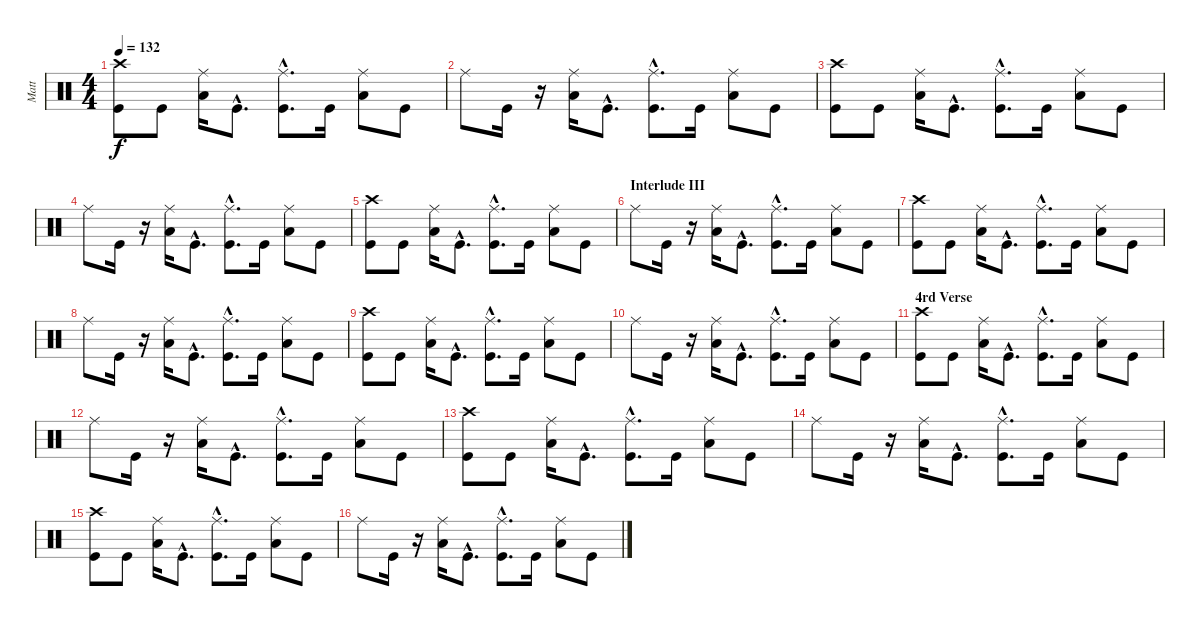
\track ("Matt" "Matt") {instrument percussion}
\staff {score}
\articulation defaults
\ts (4 4)
\tempo 132
\clef neutral
\ks c
("Crash high (hit)" "Kick (hit)").8{dy f} "Kick (hit)".8 ("Ride (middle)" "Low Tom (hit)").16 "Kick (hit)"{hac}.8{d} ("Kick (hit)"{hac} "Ride (middle)").8{d} "Kick (hit)".16 ("Ride (middle)" "Low Tom (hit)").8 "Kick (hit)".8 |
"Ride (middle)".8 "Kick (hit)".16 r.16 ("Low Tom (hit)" "Ride (middle)").16 "Kick (hit)"{hac}.8{d} ("Kick (hit)"{hac} "Ride (middle)").8{d} "Kick (hit)".16 ("Ride (middle)" "Low Tom (hit)").8 "Kick (hit)".8 |
("Kick (hit)" "Crash high (hit)").8 "Kick (hit)".8 ("Low Tom (hit)" "Ride (middle)").16 "Kick (hit)"{hac}.8{d} ("Ride (middle)" "Kick (hit)"{hac}).8{d} "Kick (hit)".16 ("Ride (middle)" "Low Tom (hit)").8 "Kick (hit)".8 |
"Ride (middle)".8 "Kick (hit)".16 r.16 ("Low Tom (hit)" "Ride (middle)").16 "Kick (hit)"{hac}.8{d} ("Kick (hit)"{hac} "Ride (middle)").8{d} "Kick (hit)".16 ("Low Tom (hit)" "Ride (middle)").8 "Kick (hit)".8 |
("Kick (hit)" "Crash high (hit)").8 "Kick (hit)".8 ("Low Tom (hit)" "Ride (middle)").16 "Kick (hit)"{hac}.8{d} ("Ride (middle)" "Kick (hit)"{hac}).8{d} "Kick (hit)".16 ("Ride (middle)" "Low Tom (hit)").8 "Kick (hit)".8 |
\section ("" "Interlude III")
"Ride (middle)".8 "Kick (hit)".16 r.16 ("Ride (middle)" "Low Tom (hit)").16 "Kick (hit)"{hac}.8{d} ("Kick (hit)"{hac} "Ride (middle)").8{d} "Kick (hit)".16 ("Low Tom (hit)" "Ride (middle)").8 "Kick (hit)".8 |
("Crash high (hit)" "Kick (hit)").8 "Kick (hit)".8 ("Low Tom (hit)" "Ride (middle)").16 "Kick (hit)"{hac}.8{d} ("Ride (middle)" "Kick (hit)"{hac}).8{d} "Kick (hit)".16 ("Low Tom (hit)" "Ride (middle)").8 "Kick (hit)".8 |
"Ride (middle)".8 "Kick (hit)".16 r.16 ("Low Tom (hit)" "Ride (middle)").16 "Kick (hit)"{hac}.8{d} ("Kick (hit)"{hac} "Ride (middle)").8{d} "Kick (hit)".16 ("Low Tom (hit)" "Ride (middle)").8 "Kick (hit)".8 |
("Crash high (hit)" "Kick (hit)").8 "Kick (hit)".8 ("Ride (middle)" "Low Tom (hit)").16 "Kick (hit)"{hac}.8{d} ("Kick (hit)"{hac} "Ride (middle)").8{d} "Kick (hit)".16 ("Low Tom (hit)" "Ride (middle)").8 "Kick (hit)".8 |
"Ride (middle)".8 "Kick (hit)".16 r.16 ("Ride (middle)" "Low Tom (hit)").16 "Kick (hit)"{hac}.8{d} ("Kick (hit)"{hac} "Ride (middle)").8{d} "Kick (hit)".16 ("Low Tom (hit)" "Ride (middle)").8 "Kick (hit)".8 |
\section ("" "4rd Verse")
("Crash high (hit)" "Kick (hit)").8 "Kick (hit)".8 ("Ride (middle)" "Low Tom (hit)").16 "Kick (hit)"{hac}.8{d} ("Kick (hit)"{hac} "Ride (middle)").8{d} "Kick (hit)".16 ("Ride (middle)" "Low Tom (hit)").8 "Kick (hit)".8 |
"Ride (middle)".8 "Kick (hit)".16 r.16 ("Ride (middle)" "Low Tom (hit)").16 "Kick (hit)"{hac}.8{d} ("Kick (hit)"{hac} "Ride (middle)").8{d} "Kick (hit)".16 ("Low Tom (hit)" "Ride (middle)").8 "Kick (hit)".8 |
("Crash high (hit)" "Kick (hit)").8 "Kick (hit)".8 ("Low Tom (hit)" "Ride (middle)").16 "Kick (hit)"{hac}.8{d} ("Kick (hit)"{hac} "Ride (middle)").8{d} "Kick (hit)".16 ("Low Tom (hit)" "Ride (middle)").8 "Kick (hit)".8 |
"Ride (middle)".8 "Kick (hit)".16 r.16 ("Ride (middle)" "Low Tom (hit)").16 "Kick (hit)"{hac}.8{d} ("Ride (middle)" "Kick (hit)"{hac}).8{d} "Kick (hit)".16 ("Ride (middle)" "Low Tom (hit)").8 "Kick (hit)".8 |
("Kick (hit)" "Crash high (hit)").8 "Kick (hit)".8 ("Low Tom (hit)" "Ride (middle)").16 "Kick (hit)"{hac}.8{d} ("Ride (middle)" "Kick (hit)"{hac}).8{d} "Kick (hit)".16 ("Low Tom (hit)" "Ride (middle)").8 "Kick (hit)".8 |
"Ride (middle)".8 "Kick (hit)".16 r.16 ("Ride (middle)" "Low Tom (hit)").16 "Kick (hit)"{hac}.8{d} ("Kick (hit)"{hac} "Ride (middle)").8{d} "Kick (hit)".16 ("Ride (middle)" "Low Tom (hit)").8 "Kick (hit)".8
